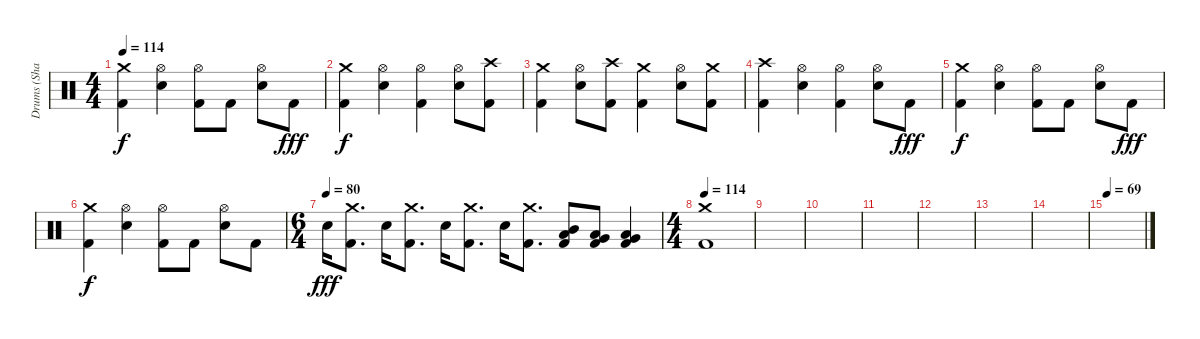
\track ("Drums (Shawn)" "Drums (Sha") {instrument percussion}
\staff {score}
\articulation defaults
\ts (4 4)
\tempo 114
\clef neutral
\ks c
("Crash medium (hit)" "Kick (hit) 2").4{dy f} ("Hi-Hat (open)" "Snare (hit) 2").4 ("Hi-Hat (open)" "Kick (hit) 2").8 "Kick (hit) 2".8 ("Hi-Hat (open)" "Snare (hit) 2").8 "Kick (hit) 2".8{dy fff} |
("Crash medium (hit)" "Kick (hit) 2").4{dy f} ("Hi-Hat (open)" "Snare (hit) 2").4 ("Hi-Hat (open)" "Kick (hit) 2").4 ("Hi-Hat (open)" "Snare (hit) 2").8 ("Crash high (hit)" "Kick (hit) 2").8 |
("Crash medium (hit)" "Kick (hit) 2").4 ("Hi-Hat (open)" "Snare (hit) 2").8 ("Crash high (hit)" "Kick (hit) 2").8 ("Crash medium (hit)" "Kick (hit) 2").4 ("Hi-Hat (open)" "Snare (hit) 2").8 ("Crash medium (hit)" "Kick (hit) 2").8 |
("Crash high (hit)" "Kick (hit) 2").4 ("Hi-Hat (open)" "Snare (hit) 2").4 ("Hi-Hat (open)" "Kick (hit) 2").4 ("Hi-Hat (open)" "Snare (hit) 2").8 "Kick (hit) 2".8{dy fff} |
("Crash medium (hit)" "Kick (hit) 2").4{dy f} ("Hi-Hat (open)" "Snare (hit) 2").4 ("Hi-Hat (open)" "Kick (hit) 2").8 "Kick (hit) 2".8 ("Hi-Hat (open)" "Snare (hit) 2").8 "Kick (hit) 2".8{dy fff} |
("Crash medium (hit)" "Kick (hit) 2").4{dy f} ("Hi-Hat (open)" "Snare (hit) 2").4 ("Hi-Hat (open)" "Kick (hit) 2").8 "Kick (hit) 2".8 ("Hi-Hat (open)" "Snare (hit) 2").8 "Kick (hit) 2".8 |
\ts (6 4)
\tempo (80)
"Snare (hit) 2".16{dy fff} ("Crash medium (hit)" "Kick (hit) 2").8{d} "Snare (hit) 2".16 ("Crash medium (hit)" "Kick (hit) 2").8{d} "Snare (hit) 2".16 ("Crash medium (hit)" "Kick (hit) 2").8{d} "Snare (hit) 2".16 ("Crash medium (hit)" "Kick (hit) 2").8{d} ("Mid Tom (hit)" "Low Tom (hit)" "Kick (hit) 2").8 ("Low Tom (hit)" "Very Low Tom (hit)" "Kick (hit) 2").8 ("Very Low Tom (hit)" "Low Floor Tom (hit)" "Kick (hit) 2").4 |
\ts (4 4)
\tempo 114
("Crash medium (hit)" "Kick (hit) 2").1 |
|
|
|
|
|
|
\tempo 69
